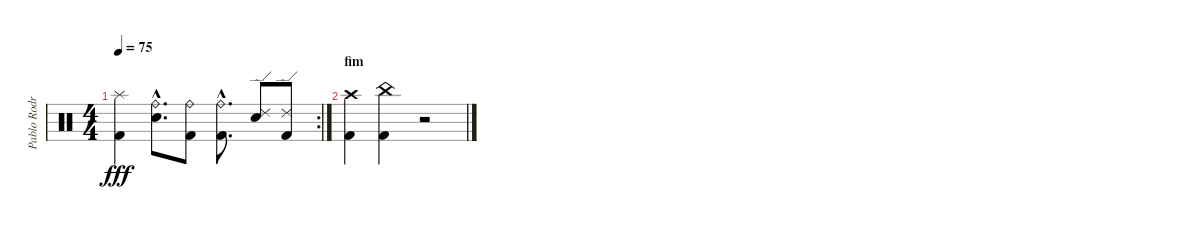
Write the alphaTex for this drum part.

\track ("Pablo Rodrigues" "Pablo Rodr") {instrument percussion}
\staff {score}
\articulation defaults
\rc 2
\ts (4 4)
\tempo 75
\clef neutral
\ks c
("Splash (hit)" "Kick (hit) 2").4{dy fff} ("Ride (bell)"{hac} "Snare (hit) 2"{hac}).8{d} ("Ride (bell)" "Kick (hit) 2").8 ("Ride (bell)"{hac} "Kick (hit) 2"{hac}).8{d} ("Ride (edge) 2" "Snare (hit) 2").8 ("Ride (edge) 2" "Kick (hit) 2").8 |
\section ("" "fim")
("Crash high (hit)" "Kick (hit) 2").4 ("China (hit)" "Kick (hit) 2").4 r.2
